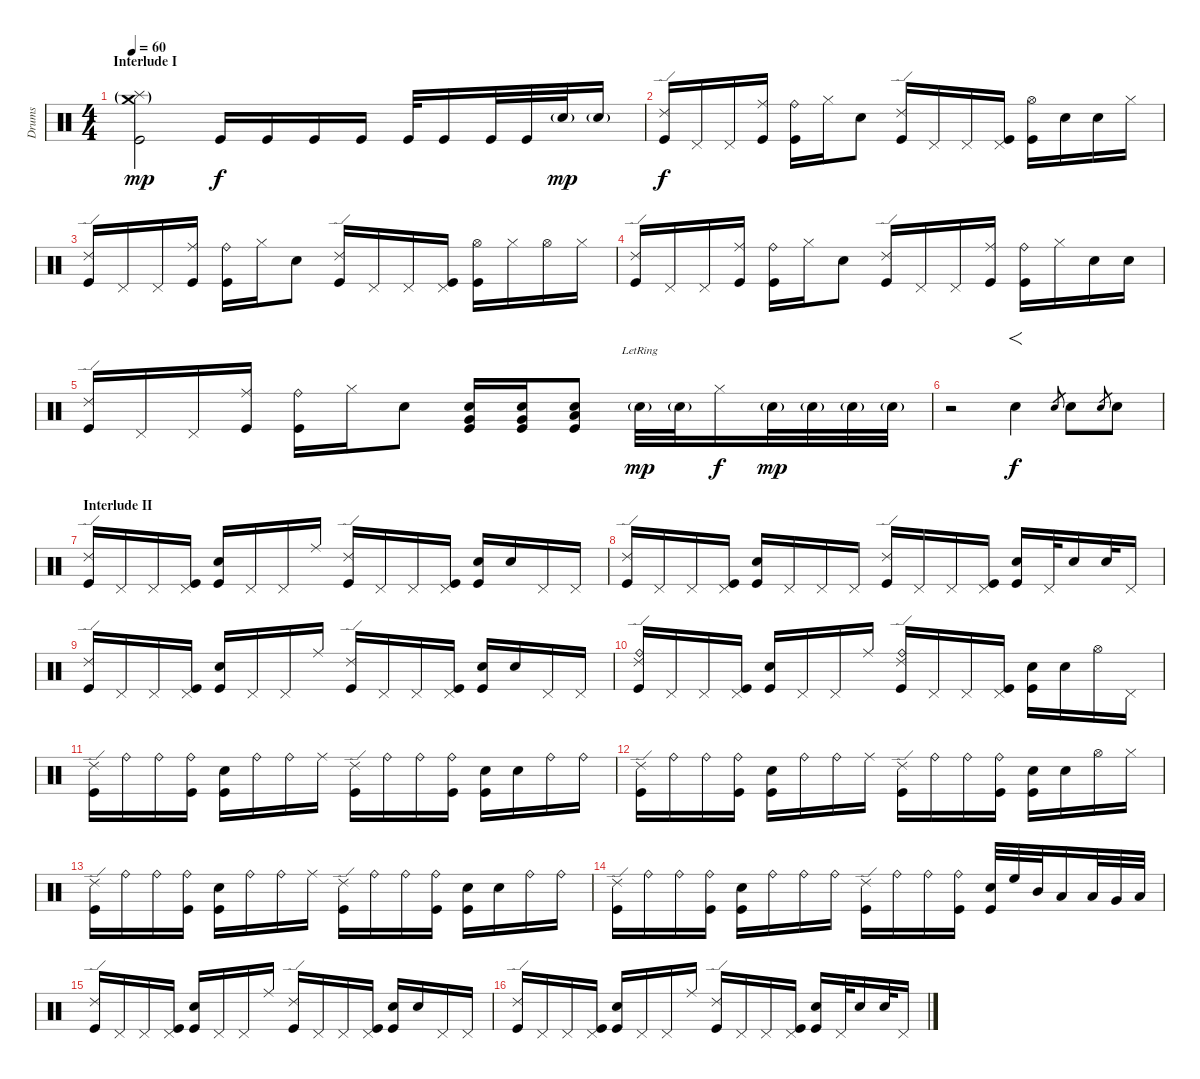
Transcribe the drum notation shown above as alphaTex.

\track ("Drums" "Drums") {instrument percussion}
\staff {score}
\articulation defaults
\ts (4 4)
\section ("" "Interlude I")
\tempo 60
\clef neutral
\ks c
("Crash medium (hit)"{g} "Splash (hit)"{g} "Kick (hit)").2{dy mp} "Kick (hit)".16{dy f} "Kick (hit)".16 "Kick (hit)".16 "Kick (hit)".16 "Kick (hit)".32 "Kick (hit)".16 "Kick (hit)".32 "Kick (hit)".32 "Electric Snare (hit)"{g}.32{dy mp} "Electric Snare (hit)"{g}.16 |
("Ride (edge) 2" "Kick (hit)").16{dy f} "Pedal Hi-Hat (hit)".16 "Pedal Hi-Hat (hit)".16 ("Ride (middle)" "Kick (hit)").16 ("Ride (bell)" "Kick (hit)").16 "Hi-Hat (closed)".16 "Electric Snare (hit)".8 ("Ride (edge) 2" "Kick (hit)").16 "Pedal Hi-Hat (hit)".16 "Pedal Hi-Hat (hit)".16 ("Pedal Hi-Hat (hit)" "Kick (hit)").16 ("Hi-Hat (open)" "Kick (hit)").16 "Electric Snare (hit)".16 "Electric Snare (hit)".16 "Hi-Hat (closed)".16 |
("Ride (edge) 2" "Kick (hit)").16 "Pedal Hi-Hat (hit)".16 "Pedal Hi-Hat (hit)".16 ("Ride (middle)" "Kick (hit)").16 ("Ride (bell)" "Kick (hit)").16 "Hi-Hat (closed)".16 "Electric Snare (hit)".8 ("Ride (edge) 2" "Kick (hit)").16 "Pedal Hi-Hat (hit)".16 "Pedal Hi-Hat (hit)".16 ("Pedal Hi-Hat (hit)" "Kick (hit)").16 ("Hi-Hat (open)" "Kick (hit)").16 "Hi-Hat (closed)".16 "Hi-Hat (open)".16 "Hi-Hat (closed)".16 |
("Ride (edge) 2" "Kick (hit)").16 "Pedal Hi-Hat (hit)".16 "Pedal Hi-Hat (hit)".16 ("Ride (middle)" "Kick (hit)").16 ("Ride (bell)" "Kick (hit)").16 "Hi-Hat (closed)".16 "Electric Snare (hit)".8 ("Ride (edge) 2" "Kick (hit)").16 "Pedal Hi-Hat (hit)".16 "Pedal Hi-Hat (hit)".16 ("Ride (middle)" "Kick (hit)").16 ("Ride (bell)" "Kick (hit)").16 "Hi-Hat (closed)".16 "Electric Snare (hit)".16 "Electric Snare (hit)".16 |
("Ride (edge) 2" "Kick (hit)").16 "Pedal Hi-Hat (hit)".16 "Pedal Hi-Hat (hit)".16 ("Ride (middle)" "Kick (hit)").16 ("Ride (bell)" "Kick (hit)").16 "Hi-Hat (closed)".16 "Electric Snare (hit)".8 ("Very Low Tom (hit)" "Electric Snare (hit)" "Kick (hit)").16 ("Very Low Tom (hit)" "Electric Snare (hit)" "Kick (hit)").16 ("Low Floor Tom (hit)" "Electric Snare (hit)" "Kick (hit)").8 "Electric Snare (hit)"{g lr}.32{dy mp} "Electric Snare (hit)"{g}.32 "Hi-Hat (closed)".16{dy f} "Electric Snare (hit)"{g}.32{dy mp} "Electric Snare (hit)"{g}.32 "Snare (hit) 2"{g}.32 "Snare (hit) 2"{g}.32 |
r.2 "Snare (hit) 2"{tr (38 64)}.4{f dy f} "Electric Snare (hit)".8{gr} "Electric Snare (hit)".8 "Electric Snare (hit)".8{gr} "Electric Snare (hit)".8 |
\section ("" "Interlude II")
("Ride (edge) 2" "Kick (hit)").16 "Pedal Hi-Hat (hit)".16 "Pedal Hi-Hat (hit)".16 ("Pedal Hi-Hat (hit)" "Kick (hit)").16 ("Electric Snare (hit)" "Kick (hit)").16 "Pedal Hi-Hat (hit)".16 "Pedal Hi-Hat (hit)".16 "Ride (middle)".16 ("Ride (edge) 2" "Kick (hit)").16 "Pedal Hi-Hat (hit)".16 "Pedal Hi-Hat (hit)".16 ("Pedal Hi-Hat (hit)" "Kick (hit)").16 ("Electric Snare (hit)" "Kick (hit)").16 "Electric Snare (hit)".16 "Pedal Hi-Hat (hit)".16 "Pedal Hi-Hat (hit)".16 |
("Ride (edge) 2" "Kick (hit)").16 "Pedal Hi-Hat (hit)".16 "Pedal Hi-Hat (hit)".16 ("Pedal Hi-Hat (hit)" "Kick (hit)").16 ("Electric Snare (hit)" "Kick (hit)").16 "Pedal Hi-Hat (hit)".16 "Pedal Hi-Hat (hit)".16 "Pedal Hi-Hat (hit)".16 ("Ride (edge) 2" "Kick (hit)").16 "Pedal Hi-Hat (hit)".16 "Pedal Hi-Hat (hit)".16 ("Pedal Hi-Hat (hit)" "Kick (hit)").16 ("Electric Snare (hit)" "Kick (hit)").16 "Pedal Hi-Hat (hit)".32 "Electric Snare (hit)".16 "Electric Snare (hit)".32 "Pedal Hi-Hat (hit)".16 |
("Ride (edge) 2" "Kick (hit)").16 "Pedal Hi-Hat (hit)".16 "Pedal Hi-Hat (hit)".16 ("Pedal Hi-Hat (hit)" "Kick (hit)").16 ("Electric Snare (hit)" "Kick (hit)").16 "Pedal Hi-Hat (hit)".16 "Pedal Hi-Hat (hit)".16 "Ride (middle)".16 ("Ride (edge) 2" "Kick (hit)").16 "Pedal Hi-Hat (hit)".16 "Pedal Hi-Hat (hit)".16 ("Pedal Hi-Hat (hit)" "Kick (hit)").16 ("Electric Snare (hit)" "Kick (hit)").16 "Electric Snare (hit)".16 "Pedal Hi-Hat (hit)".16 "Pedal Hi-Hat (hit)".16 |
("Ride (bell)" "Ride (edge) 2" "Kick (hit)").16 "Pedal Hi-Hat (hit)".16 "Pedal Hi-Hat (hit)".16 ("Pedal Hi-Hat (hit)" "Kick (hit)").16 ("Electric Snare (hit)" "Kick (hit)").16 "Pedal Hi-Hat (hit)".16 "Pedal Hi-Hat (hit)".16 "Ride (middle)".16 ("Ride (bell)" "Ride (edge) 2" "Kick (hit)").16 "Pedal Hi-Hat (hit)".16 "Pedal Hi-Hat (hit)".16 ("Pedal Hi-Hat (hit)" "Kick (hit)").16 ("Electric Snare (hit)" "Kick (hit)").16 "Electric Snare (hit)".16 "Hi-Hat (open)".16 "Pedal Hi-Hat (hit)".16 |
("Ride (edge) 2" "Kick (hit)").16 "Ride (bell)".16 "Ride (bell)".16 ("Ride (bell)" "Kick (hit)").16 ("Electric Snare (hit)" "Kick (hit)").16 "Ride (bell)".16 "Ride (bell)".16 "Ride (middle)".16 ("Ride (edge) 2" "Kick (hit)").16 "Ride (bell)".16 "Ride (bell)".16 ("Ride (bell)" "Kick (hit)").16 ("Electric Snare (hit)" "Kick (hit)").16 "Electric Snare (hit)".16 "Ride (bell)".16 "Ride (bell)".16 |
("Ride (edge) 2" "Kick (hit)").16 "Ride (bell)".16 "Ride (bell)".16 ("Ride (bell)" "Kick (hit)").16 ("Electric Snare (hit)" "Kick (hit)").16 "Ride (bell)".16 "Ride (bell)".16 "Ride (middle)".16 ("Ride (edge) 2" "Kick (hit)").16 "Ride (bell)".16 "Ride (bell)".16 ("Ride (bell)" "Kick (hit)").16 ("Electric Snare (hit)" "Kick (hit)").16 "Electric Snare (hit)".16 "Hi-Hat (open)".16 "Hi-Hat (closed)".16 |
("Ride (edge) 2" "Kick (hit)").16 "Ride (bell)".16 "Ride (bell)".16 ("Ride (bell)" "Kick (hit)").16 ("Electric Snare (hit)" "Kick (hit)").16 "Ride (bell)".16 "Ride (bell)".16 "Ride (middle)".16 ("Ride (edge) 2" "Kick (hit)").16 "Ride (bell)".16 "Ride (bell)".16 ("Ride (bell)" "Kick (hit)").16 ("Electric Snare (hit)" "Kick (hit)").16 "Electric Snare (hit)".16 "Ride (bell)".16 "Ride (bell)".16 |
("Ride (edge) 2" "Kick (hit)").16 "Ride (bell)".16 "Ride (bell)".16 ("Ride (bell)" "Kick (hit)").16 ("Electric Snare (hit)" "Kick (hit)").16 "Ride (bell)".16 "Ride (bell)".16 "Ride (bell)".16 ("Ride (edge) 2" "Kick (hit)").16 "Ride (bell)".16 "Ride (bell)".16 ("Ride (bell)" "Kick (hit)").16 ("Electric Snare (hit)" "Kick (hit)").32 "High Floor Tom (hit)".32 "Mid Tom (hit)".32 "Low Tom (hit)".16 "Low Tom (hit)".32 "Very Low Tom (hit)".32 "Low Floor Tom (hit)".32 |
("Ride (edge) 2" "Kick (hit)").16 "Pedal Hi-Hat (hit)".16 "Pedal Hi-Hat (hit)".16 ("Pedal Hi-Hat (hit)" "Kick (hit)").16 ("Electric Snare (hit)" "Kick (hit)").16 "Pedal Hi-Hat (hit)".16 "Pedal Hi-Hat (hit)".16 "Ride (middle)".16 ("Ride (edge) 2" "Kick (hit)").16 "Pedal Hi-Hat (hit)".16 "Pedal Hi-Hat (hit)".16 ("Pedal Hi-Hat (hit)" "Kick (hit)").16 ("Electric Snare (hit)" "Kick (hit)").16 "Electric Snare (hit)".16 "Pedal Hi-Hat (hit)".16 "Pedal Hi-Hat (hit)".16 |
("Ride (edge) 2" "Kick (hit)").16 "Pedal Hi-Hat (hit)".16 "Pedal Hi-Hat (hit)".16 ("Pedal Hi-Hat (hit)" "Kick (hit)").16 ("Electric Snare (hit)" "Kick (hit)").16 "Pedal Hi-Hat (hit)".16 "Pedal Hi-Hat (hit)".16 "Ride (middle)".16 ("Ride (edge) 2" "Kick (hit)").16 "Pedal Hi-Hat (hit)".16 "Pedal Hi-Hat (hit)".16 ("Pedal Hi-Hat (hit)" "Kick (hit)").16 ("Electric Snare (hit)" "Kick (hit)").16 "Pedal Hi-Hat (hit)".32 "Electric Snare (hit)".16 "Electric Snare (hit)".32 "Pedal Hi-Hat (hit)".16
